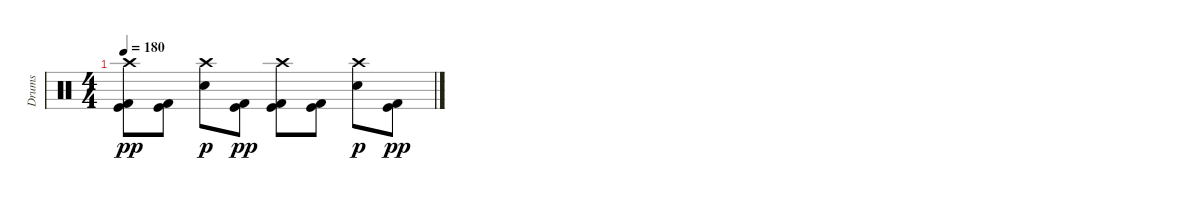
\track ("Drums" "Drums") {instrument percussion}
\staff {score}
\articulation defaults
\ts (4 4)
\tempo 180
\clef neutral
\ks c
("Crash high (hit)" "Kick (hit)" "Kick (hit) 2").8{dy pp} ("Kick (hit)" "Kick (hit) 2").8 ("Crash high (hit)" "Snare (hit) 2").8{dy p} ("Kick (hit)" "Kick (hit) 2").8{dy pp} ("Crash high (hit)" "Kick (hit)" "Kick (hit) 2").8 ("Kick (hit)" "Kick (hit) 2").8 ("Crash high (hit)" "Snare (hit) 2").8{dy p} ("Kick (hit)" "Kick (hit) 2").8{dy pp}
